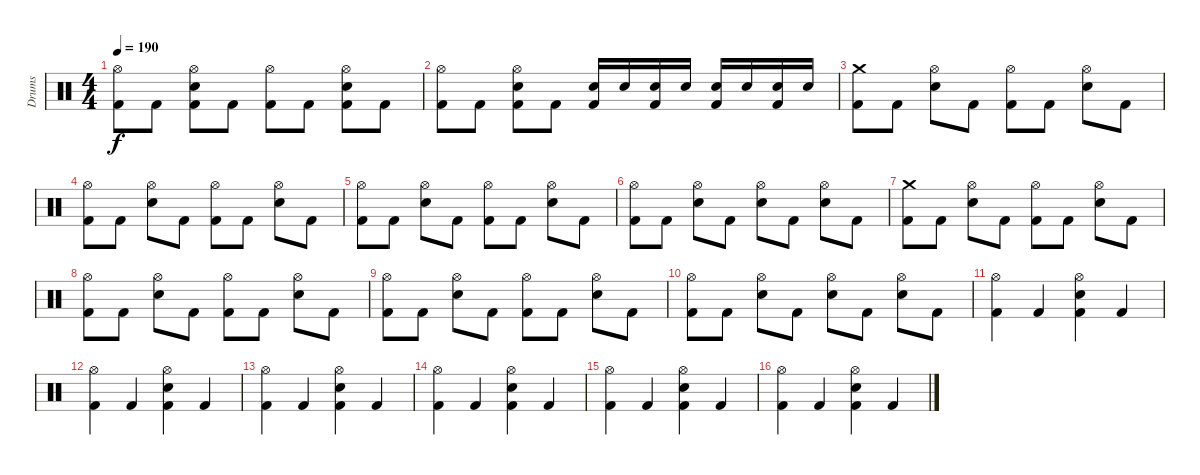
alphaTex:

\track ("Drums" "Drums") {instrument percussion}
\staff {score}
\articulation defaults
\ts (4 4)
\tempo 190
\clef neutral
\ks c
("Hi-Hat (open)" "Kick (hit) 2").8{dy f} "Kick (hit) 2".8 ("Hi-Hat (open)" "Kick (hit) 2" "Snare (hit) 2").8 "Kick (hit) 2".8 ("Hi-Hat (open)" "Kick (hit) 2").8 "Kick (hit) 2".8 ("Hi-Hat (open)" "Kick (hit) 2" "Snare (hit) 2").8 "Kick (hit) 2".8 |
("Hi-Hat (open)" "Kick (hit) 2").8 "Kick (hit) 2".8 ("Hi-Hat (open)" "Kick (hit) 2" "Snare (hit) 2").8 "Kick (hit) 2".8 ("Kick (hit) 2" "Snare (hit) 2").16 "Snare (hit) 2".16 ("Kick (hit) 2" "Snare (hit) 2").16 "Snare (hit) 2".16 ("Kick (hit) 2" "Snare (hit) 2").16 "Snare (hit) 2".16 ("Kick (hit) 2" "Snare (hit) 2").16 "Snare (hit) 2".16 |
("Crash medium (hit)" "Kick (hit) 2").8 "Kick (hit) 2".8 ("Hi-Hat (open)" "Snare (hit) 2").8 "Kick (hit) 2".8 ("Hi-Hat (open)" "Kick (hit) 2").8 "Kick (hit) 2".8 ("Hi-Hat (open)" "Snare (hit) 2").8 "Kick (hit) 2".8 |
("Hi-Hat (open)" "Kick (hit) 2").8 "Kick (hit) 2".8 ("Hi-Hat (open)" "Snare (hit) 2").8 "Kick (hit) 2".8 ("Hi-Hat (open)" "Kick (hit) 2").8 "Kick (hit) 2".8 ("Hi-Hat (open)" "Snare (hit) 2").8 "Kick (hit) 2".8 |
("Hi-Hat (open)" "Kick (hit) 2").8 "Kick (hit) 2".8 ("Hi-Hat (open)" "Snare (hit) 2").8 "Kick (hit) 2".8 ("Hi-Hat (open)" "Kick (hit) 2").8 "Kick (hit) 2".8 ("Hi-Hat (open)" "Snare (hit) 2").8 "Kick (hit) 2".8 |
("Hi-Hat (open)" "Kick (hit) 2").8 "Kick (hit) 2".8 ("Hi-Hat (open)" "Snare (hit) 2").8 "Kick (hit) 2".8 ("Hi-Hat (open)" "Snare (hit) 2").8 "Kick (hit) 2".8 ("Hi-Hat (open)" "Snare (hit) 2").8 "Kick (hit) 2".8 |
("Crash medium (hit)" "Kick (hit) 2").8 "Kick (hit) 2".8 ("Hi-Hat (open)" "Snare (hit) 2").8 "Kick (hit) 2".8 ("Hi-Hat (open)" "Kick (hit) 2").8 "Kick (hit) 2".8 ("Hi-Hat (open)" "Snare (hit) 2").8 "Kick (hit) 2".8 |
("Hi-Hat (open)" "Kick (hit) 2").8 "Kick (hit) 2".8 ("Hi-Hat (open)" "Snare (hit) 2").8 "Kick (hit) 2".8 ("Hi-Hat (open)" "Kick (hit) 2").8 "Kick (hit) 2".8 ("Hi-Hat (open)" "Snare (hit) 2").8 "Kick (hit) 2".8 |
("Hi-Hat (open)" "Kick (hit) 2").8 "Kick (hit) 2".8 ("Hi-Hat (open)" "Snare (hit) 2").8 "Kick (hit) 2".8 ("Hi-Hat (open)" "Kick (hit) 2").8 "Kick (hit) 2".8 ("Hi-Hat (open)" "Snare (hit) 2").8 "Kick (hit) 2".8 |
("Hi-Hat (open)" "Kick (hit) 2").8 "Kick (hit) 2".8 ("Hi-Hat (open)" "Snare (hit) 2").8 "Kick (hit) 2".8 ("Hi-Hat (open)" "Snare (hit) 2").8 "Kick (hit) 2".8 ("Hi-Hat (open)" "Snare (hit) 2").8 "Kick (hit) 2".8 |
("Hi-Hat (open)" "Kick (hit) 2").4 "Kick (hit) 2".4 ("Hi-Hat (open)" "Kick (hit) 2" "Snare (hit) 2").4 "Kick (hit) 2".4 |
("Hi-Hat (open)" "Kick (hit) 2").4 "Kick (hit) 2".4 ("Hi-Hat (open)" "Kick (hit) 2" "Snare (hit) 2").4 "Kick (hit) 2".4 |
("Hi-Hat (open)" "Kick (hit) 2").4 "Kick (hit) 2".4 ("Hi-Hat (open)" "Kick (hit) 2" "Snare (hit) 2").4 "Kick (hit) 2".4 |
("Hi-Hat (open)" "Kick (hit) 2").4 "Kick (hit) 2".4 ("Hi-Hat (open)" "Kick (hit) 2" "Snare (hit) 2").4 "Kick (hit) 2".4 |
("Hi-Hat (open)" "Kick (hit) 2").4 "Kick (hit) 2".4 ("Hi-Hat (open)" "Kick (hit) 2" "Snare (hit) 2").4 "Kick (hit) 2".4 |
("Hi-Hat (open)" "Kick (hit) 2").4 "Kick (hit) 2".4 ("Hi-Hat (open)" "Kick (hit) 2" "Snare (hit) 2").4 "Kick (hit) 2".4
